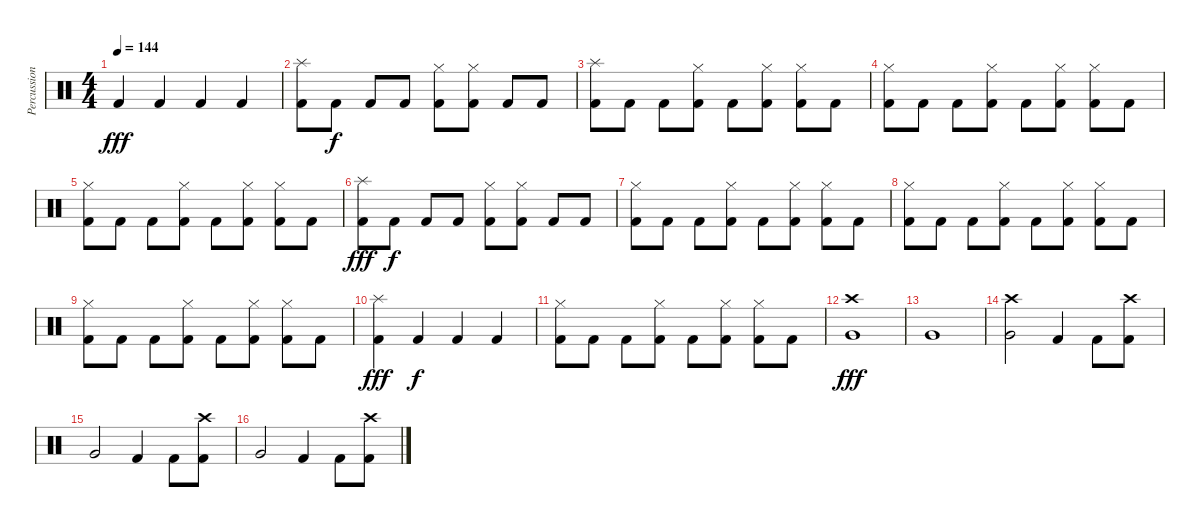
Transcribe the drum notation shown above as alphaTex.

\track ("Percussion" "Percussion") {instrument percussion}
\staff {score}
\articulation defaults
\ts (4 4)
\tempo 144
\clef neutral
\ks c "Kick (hit) 2".4{dy fff} "Kick (hit) 2".4 "Kick (hit) 2".4 "Kick (hit) 2".4
|
("Splash (hit)" "Kick (hit) 2").8 "Kick (hit) 2".8{dy f} "Kick (hit) 2".8 "Kick (hit) 2".8 ("Hi-Hat (closed)" "Kick (hit) 2").8 ("Hi-Hat (closed)" "Kick (hit) 2").8 "Kick (hit) 2".8 "Kick (hit) 2".8 |
("Splash (hit)" "Kick (hit) 2").8 "Kick (hit) 2".8 "Kick (hit) 2".8 ("Hi-Hat (closed)" "Kick (hit) 2").8 "Kick (hit) 2".8 ("Hi-Hat (closed)" "Kick (hit) 2").8 ("Hi-Hat (closed)" "Kick (hit) 2").8 "Kick (hit) 2".8 |
("Hi-Hat (closed)" "Kick (hit) 2").8 "Kick (hit) 2".8 "Kick (hit) 2".8 ("Hi-Hat (closed)" "Kick (hit) 2").8 "Kick (hit) 2".8 ("Hi-Hat (closed)" "Kick (hit) 2").8 ("Hi-Hat (closed)" "Kick (hit) 2").8 "Kick (hit) 2".8 |
("Hi-Hat (closed)" "Kick (hit) 2").8 "Kick (hit) 2".8 "Kick (hit) 2".8 ("Hi-Hat (closed)" "Kick (hit) 2").8 "Kick (hit) 2".8 ("Hi-Hat (closed)" "Kick (hit) 2").8 ("Hi-Hat (closed)" "Kick (hit) 2").8 "Kick (hit) 2".8 |
("Splash (hit)" "Kick (hit) 2").8{dy fff} "Kick (hit) 2".8{dy f} "Kick (hit) 2".8 "Kick (hit) 2".8 ("Hi-Hat (closed)" "Kick (hit) 2").8 ("Hi-Hat (closed)" "Kick (hit) 2").8 "Kick (hit) 2".8 "Kick (hit) 2".8 |
("Hi-Hat (closed)" "Kick (hit) 2").8 "Kick (hit) 2".8 "Kick (hit) 2".8 ("Hi-Hat (closed)" "Kick (hit) 2").8 "Kick (hit) 2".8 ("Hi-Hat (closed)" "Kick (hit) 2").8 ("Hi-Hat (closed)" "Kick (hit) 2").8 "Kick (hit) 2".8 |
("Hi-Hat (closed)" "Kick (hit) 2").8 "Kick (hit) 2".8 "Kick (hit) 2".8 ("Hi-Hat (closed)" "Kick (hit) 2").8 "Kick (hit) 2".8 ("Hi-Hat (closed)" "Kick (hit) 2").8 ("Hi-Hat (closed)" "Kick (hit) 2").8 "Kick (hit) 2".8 |
("Hi-Hat (closed)" "Kick (hit) 2").8 "Kick (hit) 2".8 "Kick (hit) 2".8 ("Hi-Hat (closed)" "Kick (hit) 2").8 "Kick (hit) 2".8 ("Hi-Hat (closed)" "Kick (hit) 2").8 ("Hi-Hat (closed)" "Kick (hit) 2").8 "Kick (hit) 2".8 |
("Splash (hit)" "Kick (hit) 2").4{dy fff} "Kick (hit) 2".4{dy f} "Kick (hit) 2".4 "Kick (hit) 2".4 |
("Hi-Hat (closed)" "Kick (hit) 2").8 "Kick (hit) 2".8 "Kick (hit) 2".8 ("Hi-Hat (closed)" "Kick (hit) 2").8 "Kick (hit) 2".8 ("Hi-Hat (closed)" "Kick (hit) 2").8 ("Hi-Hat (closed)" "Kick (hit) 2").8 "Kick (hit) 2".8 |
("Crash high (hit)" "Very Low Tom (hit)").1{dy fff} |
"Very Low Tom (hit)".1 |
("Crash high (hit)" "Very Low Tom (hit)").2 "Kick (hit) 2".4 "Kick (hit) 2".8 ("Kick (hit) 2" "Crash high (hit)").8 |
"Very Low Tom (hit)".2 "Kick (hit) 2".4 "Kick (hit) 2".8 ("Kick (hit) 2" "Crash high (hit)").8 |
"Very Low Tom (hit)".2 "Kick (hit) 2".4 "Kick (hit) 2".8 ("Kick (hit) 2" "Crash high (hit)").8
